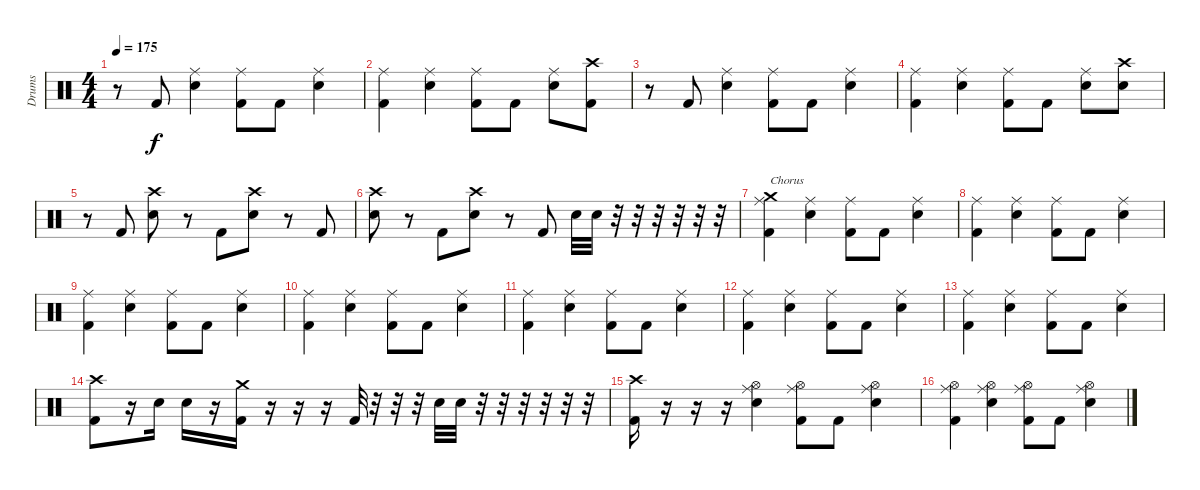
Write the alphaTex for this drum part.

\track ("Drums" "Drums") {instrument percussion}
\staff {score}
\articulation defaults
\ts (4 4)
\tempo 175
\clef neutral
\ks c
r.8{dy f} "Kick (hit) 2".8 ("Ride (middle)" "Electric Snare (hit)").4 ("Ride (middle)" "Kick (hit) 2").8 "Kick (hit) 2".8 ("Ride (middle)" "Electric Snare (hit)").4 |
("Ride (middle)" "Kick (hit) 2").4 ("Ride (middle)" "Electric Snare (hit)").4 ("Ride (middle)" "Kick (hit) 2").8 "Kick (hit) 2".8 ("Ride (middle)" "Electric Snare (hit)").8 ("Crash high (hit)" "Kick (hit) 2").8 |
r.8 "Kick (hit) 2".8 ("Ride (middle)" "Electric Snare (hit)").4 ("Ride (middle)" "Kick (hit) 2").8 "Kick (hit) 2".8 ("Ride (middle)" "Electric Snare (hit)").4 |
("Ride (middle)" "Kick (hit) 2").4 ("Ride (middle)" "Electric Snare (hit)").4 ("Ride (middle)" "Kick (hit) 2").8 "Kick (hit) 2".8 ("Ride (middle)" "Electric Snare (hit)").8 ("Crash high (hit)" "Electric Snare (hit)").8 |
r.8 "Kick (hit) 2".8 ("Crash high (hit)" "Electric Snare (hit)").8 r.8 "Kick (hit) 2".8 ("Crash high (hit)" "Electric Snare (hit)").8 r.8 "Kick (hit) 2".8 |
("Crash high (hit)" "Electric Snare (hit)").8 r.8 "Kick (hit) 2".8 ("Crash high (hit)" "Electric Snare (hit)").8 r.8 "Kick (hit) 2".8 "Electric Snare (hit)".32 "Electric Snare (hit)".32 r.32 r.32 r.32 r.32 r.32 r.32 |
("Crash medium (hit)" "Ride (middle)" "Kick (hit) 2").4{txt "Chorus"} ("Ride (middle)" "Electric Snare (hit)").4 ("Ride (middle)" "Kick (hit) 2").8 "Kick (hit) 2".8 ("Ride (middle)" "Electric Snare (hit)").4 |
("Ride (middle)" "Kick (hit) 2").4 ("Ride (middle)" "Electric Snare (hit)").4 ("Ride (middle)" "Kick (hit) 2").8 "Kick (hit) 2".8 ("Ride (middle)" "Electric Snare (hit)").4 |
("Ride (middle)" "Kick (hit) 2").4 ("Ride (middle)" "Electric Snare (hit)").4 ("Ride (middle)" "Kick (hit) 2").8 "Kick (hit) 2".8 ("Ride (middle)" "Electric Snare (hit)").4 |
("Ride (middle)" "Kick (hit) 2").4 ("Ride (middle)" "Electric Snare (hit)").4 ("Ride (middle)" "Kick (hit) 2").8 "Kick (hit) 2".8 ("Ride (middle)" "Electric Snare (hit)").4 |
("Ride (middle)" "Kick (hit) 2").4 ("Ride (middle)" "Electric Snare (hit)").4 ("Ride (middle)" "Kick (hit) 2").8 "Kick (hit) 2".8 ("Ride (middle)" "Electric Snare (hit)").4 |
("Ride (middle)" "Kick (hit) 2").4 ("Ride (middle)" "Electric Snare (hit)").4 ("Ride (middle)" "Kick (hit) 2").8 "Kick (hit) 2".8 ("Ride (middle)" "Electric Snare (hit)").4 |
("Ride (middle)" "Kick (hit) 2").4 ("Ride (middle)" "Electric Snare (hit)").4 ("Ride (middle)" "Kick (hit) 2").8 "Kick (hit) 2".8 ("Ride (middle)" "Electric Snare (hit)").4 |
("Crash high (hit)" "Kick (hit) 2").8 r.16 "Electric Snare (hit)".16 "Electric Snare (hit)".16 r.16 ("Crash medium (hit)" "Kick (hit) 2").16 r.16 r.16 r.16 "Kick (hit) 2".32 r.32 r.32 r.32 "Electric Snare (hit)".32 "Electric Snare (hit)".32 r.32 r.32 r.32 r.32 r.32 r.32 |
("Crash high (hit)" "Kick (hit) 2").16 r.16 r.16 r.16 ("Ride (middle)" "Hi-Hat (open)" "Electric Snare (hit)").4 ("Ride (middle)" "Hi-Hat (open)" "Kick (hit) 2").8 "Kick (hit) 2".8 ("Ride (middle)" "Hi-Hat (open)" "Electric Snare (hit)").4 |
("Ride (middle)" "Hi-Hat (open)" "Kick (hit) 2").4 ("Ride (middle)" "Hi-Hat (open)" "Electric Snare (hit)").4 ("Ride (middle)" "Hi-Hat (open)" "Kick (hit) 2").8 "Kick (hit) 2".8 ("Ride (middle)" "Hi-Hat (open)" "Electric Snare (hit)").4
